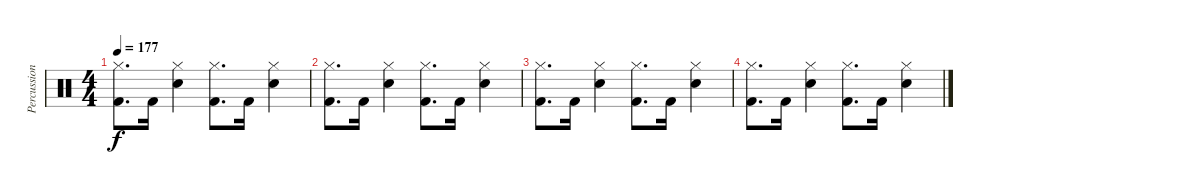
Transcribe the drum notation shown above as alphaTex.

\track ("Percussion" "Percussion") {instrument percussion}
\staff {score}
\articulation defaults
\ts (4 4)
\tempo 177
\clef neutral
\ks c
("Hi-Hat (closed)" "Kick (hit) 2").8{d dy f} "Kick (hit) 2".16 ("Hi-Hat (closed)" "Snare (hit) 2").4 ("Hi-Hat (closed)" "Kick (hit) 2").8{d} "Kick (hit) 2".16 ("Hi-Hat (closed)" "Snare (hit) 2").4 |
("Hi-Hat (closed)" "Kick (hit) 2").8{d} "Kick (hit) 2".16 ("Hi-Hat (closed)" "Snare (hit) 2").4 ("Hi-Hat (closed)" "Kick (hit) 2").8{d} "Kick (hit) 2".16 ("Hi-Hat (closed)" "Snare (hit) 2").4 |
("Hi-Hat (closed)" "Kick (hit) 2").8{d} "Kick (hit) 2".16 ("Hi-Hat (closed)" "Snare (hit) 2").4 ("Hi-Hat (closed)" "Kick (hit) 2").8{d} "Kick (hit) 2".16 ("Hi-Hat (closed)" "Snare (hit) 2").4 |
("Hi-Hat (closed)" "Kick (hit) 2").8{d} "Kick (hit) 2".16 ("Hi-Hat (closed)" "Snare (hit) 2").4 ("Hi-Hat (closed)" "Kick (hit) 2").8{d} "Kick (hit) 2".16 ("Hi-Hat (closed)" "Snare (hit) 2").4
